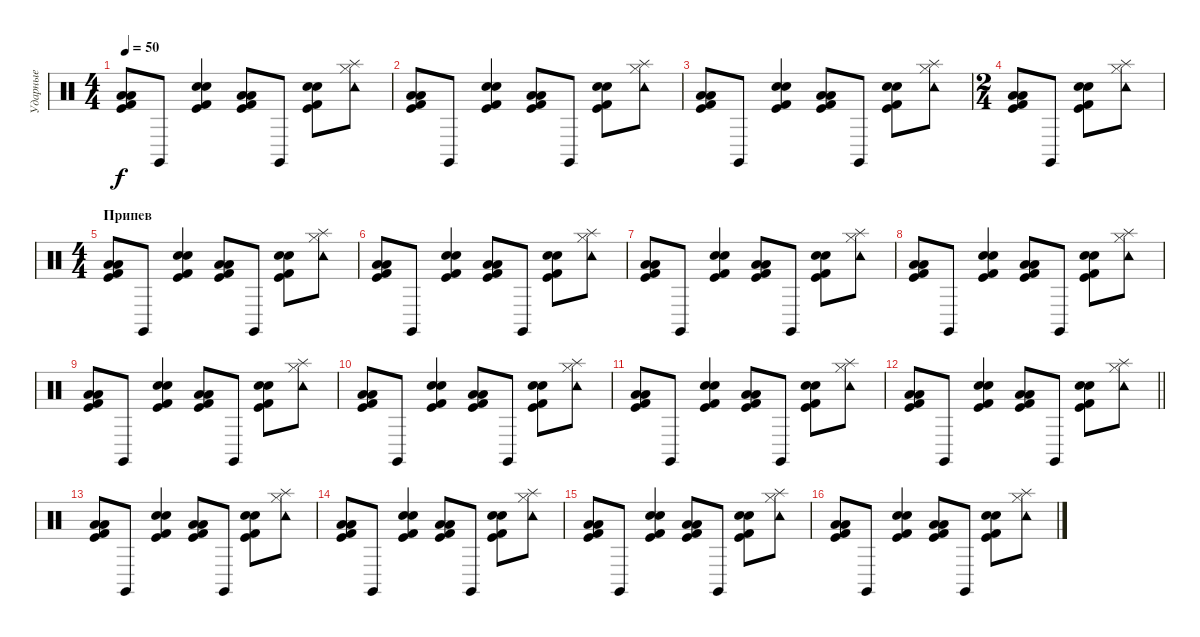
\track ("Ударные" "Ударные") {instrument percussion}
\staff
\articulation defaults
\ts (4 4)
\tempo 50
\clef neutral
\ks c
("Kick (hit) 2" "Low Floor Tom (hit)" "Kick (hit)" "Low Tom (hit)").8{dy f} "Claves (hit)".8 ("Kick (hit) 2" "Electric Snare (hit)" "Kick (hit)" "Snare (hit) 2").4 ("Kick (hit) 2" "Low Floor Tom (hit)" "Kick (hit)" "Low Tom (hit)").8 "Claves (hit)".8 ("Kick (hit) 2" "Electric Snare (hit)" "Kick (hit)" "Snare (hit) 2").8 ("Hi-Hat (closed)" "Splash (hit)" "Tambourine (hit)").8 |
("Kick (hit) 2" "Low Floor Tom (hit)" "Kick (hit)" "Low Tom (hit)").8 "Claves (hit)".8 ("Kick (hit) 2" "Electric Snare (hit)" "Kick (hit)" "Snare (hit) 2").4 ("Kick (hit) 2" "Low Floor Tom (hit)" "Kick (hit)" "Low Tom (hit)").8 "Claves (hit)".8 ("Kick (hit) 2" "Electric Snare (hit)" "Kick (hit)" "Snare (hit) 2").8 ("Hi-Hat (closed)" "Splash (hit)" "Tambourine (hit)").8 |
("Kick (hit) 2" "Low Floor Tom (hit)" "Kick (hit)" "Low Tom (hit)").8 "Claves (hit)".8 ("Kick (hit) 2" "Electric Snare (hit)" "Kick (hit)" "Snare (hit) 2").4 ("Kick (hit) 2" "Low Floor Tom (hit)" "Kick (hit)" "Low Tom (hit)").8 "Claves (hit)".8 ("Kick (hit) 2" "Electric Snare (hit)" "Kick (hit)" "Snare (hit) 2").8 ("Hi-Hat (closed)" "Splash (hit)" "Tambourine (hit)").8 |
\ts (2 4)
("Kick (hit) 2" "Low Floor Tom (hit)" "Kick (hit)" "Low Tom (hit)").8 "Claves (hit)".8 ("Kick (hit) 2" "Electric Snare (hit)" "Kick (hit)" "Snare (hit) 2").8 ("Hi-Hat (closed)" "Splash (hit)" "Tambourine (hit)").8 |
\ts (4 4)
\section ("" "Припев")
("Kick (hit) 2" "Low Floor Tom (hit)" "Kick (hit)" "Low Tom (hit)").8 "Claves (hit)".8 ("Kick (hit) 2" "Electric Snare (hit)" "Kick (hit)" "Snare (hit) 2").4 ("Kick (hit) 2" "Low Floor Tom (hit)" "Kick (hit)" "Low Tom (hit)").8 "Claves (hit)".8 ("Kick (hit) 2" "Electric Snare (hit)" "Kick (hit)" "Snare (hit) 2").8 ("Hi-Hat (closed)" "Splash (hit)" "Tambourine (hit)").8 |
("Kick (hit) 2" "Low Floor Tom (hit)" "Kick (hit)" "Low Tom (hit)").8 "Claves (hit)".8 ("Kick (hit) 2" "Electric Snare (hit)" "Kick (hit)" "Snare (hit) 2").4 ("Kick (hit) 2" "Low Floor Tom (hit)" "Kick (hit)" "Low Tom (hit)").8 "Claves (hit)".8 ("Kick (hit) 2" "Electric Snare (hit)" "Kick (hit)" "Snare (hit) 2").8 ("Hi-Hat (closed)" "Splash (hit)" "Tambourine (hit)").8 |
("Kick (hit) 2" "Low Floor Tom (hit)" "Kick (hit)" "Low Tom (hit)").8 "Claves (hit)".8 ("Kick (hit) 2" "Electric Snare (hit)" "Kick (hit)" "Snare (hit) 2").4 ("Kick (hit) 2" "Low Floor Tom (hit)" "Kick (hit)" "Low Tom (hit)").8 "Claves (hit)".8 ("Kick (hit) 2" "Electric Snare (hit)" "Kick (hit)" "Snare (hit) 2").8 ("Hi-Hat (closed)" "Splash (hit)" "Tambourine (hit)").8 |
("Kick (hit) 2" "Low Floor Tom (hit)" "Kick (hit)" "Low Tom (hit)").8 "Claves (hit)".8 ("Kick (hit) 2" "Electric Snare (hit)" "Kick (hit)" "Snare (hit) 2").4 ("Kick (hit) 2" "Low Floor Tom (hit)" "Kick (hit)" "Low Tom (hit)").8 "Claves (hit)".8 ("Kick (hit) 2" "Electric Snare (hit)" "Kick (hit)" "Snare (hit) 2").8 ("Hi-Hat (closed)" "Splash (hit)" "Tambourine (hit)").8 |
("Kick (hit) 2" "Low Floor Tom (hit)" "Kick (hit)" "Low Tom (hit)").8 "Claves (hit)".8 ("Kick (hit) 2" "Electric Snare (hit)" "Kick (hit)" "Snare (hit) 2").4 ("Kick (hit) 2" "Low Floor Tom (hit)" "Kick (hit)" "Low Tom (hit)").8 "Claves (hit)".8 ("Kick (hit) 2" "Electric Snare (hit)" "Kick (hit)" "Snare (hit) 2").8 ("Hi-Hat (closed)" "Splash (hit)" "Tambourine (hit)").8 |
("Kick (hit) 2" "Low Floor Tom (hit)" "Kick (hit)" "Low Tom (hit)").8 "Claves (hit)".8 ("Kick (hit) 2" "Electric Snare (hit)" "Kick (hit)" "Snare (hit) 2").4 ("Kick (hit) 2" "Low Floor Tom (hit)" "Kick (hit)" "Low Tom (hit)").8 "Claves (hit)".8 ("Kick (hit) 2" "Electric Snare (hit)" "Kick (hit)" "Snare (hit) 2").8 ("Hi-Hat (closed)" "Splash (hit)" "Tambourine (hit)").8 |
("Kick (hit) 2" "Low Floor Tom (hit)" "Kick (hit)" "Low Tom (hit)").8 "Claves (hit)".8 ("Kick (hit) 2" "Electric Snare (hit)" "Kick (hit)" "Snare (hit) 2").4 ("Kick (hit) 2" "Low Floor Tom (hit)" "Kick (hit)" "Low Tom (hit)").8 "Claves (hit)".8 ("Kick (hit) 2" "Electric Snare (hit)" "Kick (hit)" "Snare (hit) 2").8 ("Hi-Hat (closed)" "Splash (hit)" "Tambourine (hit)").8 |
\barLineRight lightlight
("Kick (hit) 2" "Low Floor Tom (hit)" "Kick (hit)" "Low Tom (hit)").8 "Claves (hit)".8 ("Kick (hit) 2" "Electric Snare (hit)" "Kick (hit)" "Snare (hit) 2").4 ("Kick (hit) 2" "Low Floor Tom (hit)" "Kick (hit)" "Low Tom (hit)").8 "Claves (hit)".8 ("Kick (hit) 2" "Electric Snare (hit)" "Kick (hit)" "Snare (hit) 2").8 ("Hi-Hat (closed)" "Splash (hit)" "Tambourine (hit)").8 |
("Kick (hit) 2" "Low Floor Tom (hit)" "Kick (hit)" "Low Tom (hit)").8 "Claves (hit)".8 ("Kick (hit) 2" "Electric Snare (hit)" "Kick (hit)" "Snare (hit) 2").4 ("Kick (hit) 2" "Low Floor Tom (hit)" "Kick (hit)" "Low Tom (hit)").8 "Claves (hit)".8 ("Kick (hit) 2" "Electric Snare (hit)" "Kick (hit)" "Snare (hit) 2").8 ("Hi-Hat (closed)" "Splash (hit)" "Tambourine (hit)").8 |
("Kick (hit) 2" "Low Floor Tom (hit)" "Kick (hit)" "Low Tom (hit)").8 "Claves (hit)".8 ("Kick (hit) 2" "Electric Snare (hit)" "Kick (hit)" "Snare (hit) 2").4 ("Kick (hit) 2" "Low Floor Tom (hit)" "Kick (hit)" "Low Tom (hit)").8 "Claves (hit)".8 ("Kick (hit) 2" "Electric Snare (hit)" "Kick (hit)" "Snare (hit) 2").8 ("Hi-Hat (closed)" "Splash (hit)" "Tambourine (hit)").8 |
("Kick (hit) 2" "Low Floor Tom (hit)" "Kick (hit)" "Low Tom (hit)").8 "Claves (hit)".8 ("Kick (hit) 2" "Electric Snare (hit)" "Kick (hit)" "Snare (hit) 2").4 ("Kick (hit) 2" "Low Floor Tom (hit)" "Kick (hit)" "Low Tom (hit)").8 "Claves (hit)".8 ("Kick (hit) 2" "Electric Snare (hit)" "Kick (hit)" "Snare (hit) 2").8 ("Hi-Hat (closed)" "Splash (hit)" "Tambourine (hit)").8 |
("Kick (hit) 2" "Low Floor Tom (hit)" "Kick (hit)" "Low Tom (hit)").8 "Claves (hit)".8 ("Kick (hit) 2" "Electric Snare (hit)" "Kick (hit)" "Snare (hit) 2").4 ("Kick (hit) 2" "Low Floor Tom (hit)" "Kick (hit)" "Low Tom (hit)").8 "Claves (hit)".8 ("Kick (hit) 2" "Electric Snare (hit)" "Kick (hit)" "Snare (hit) 2").8 ("Hi-Hat (closed)" "Splash (hit)" "Tambourine (hit)").8
